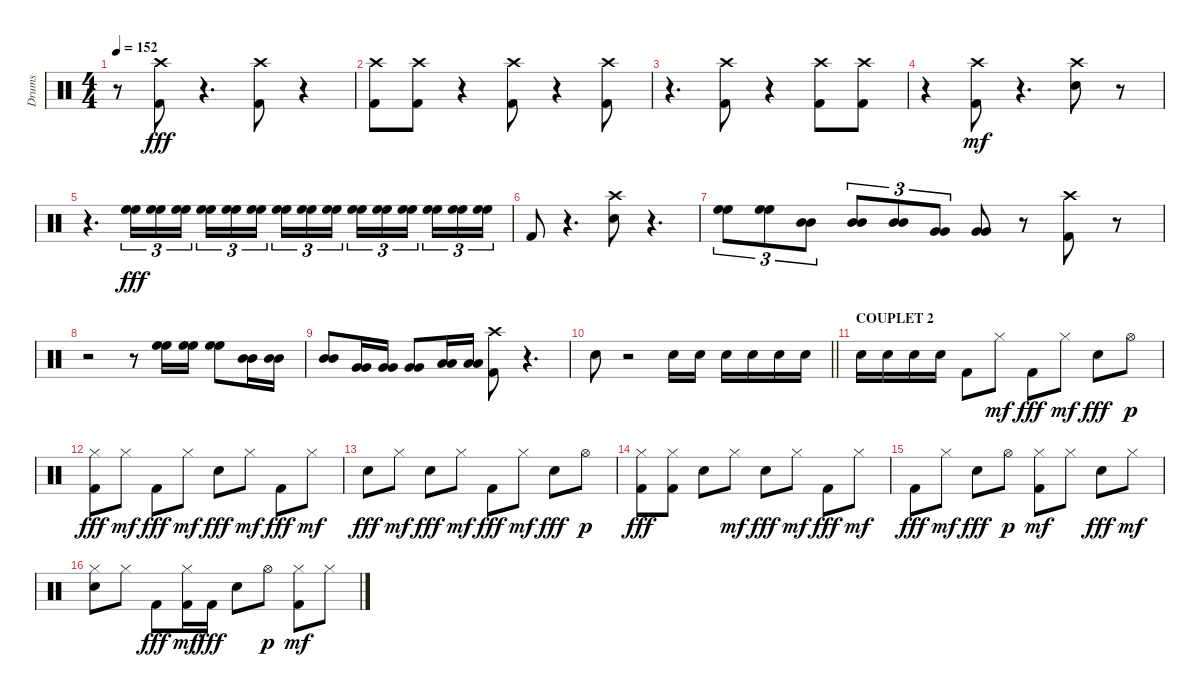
\track ("Drums" "Drums") {instrument percussion}
\staff {score}
\articulation defaults
\ts (4 4)
\tempo 152
\clef neutral
\ks c
r.8{dy fff} ("Crash high (hit)" "Kick (hit) 2").8 r.4{d} ("Crash high (hit)" "Kick (hit) 2").8 r.4 |
("Crash high (hit)" "Kick (hit) 2").8 ("Crash high (hit)" "Kick (hit) 2").8 r.4 ("Crash high (hit)" "Kick (hit) 2").8 r.4 ("Crash high (hit)" "Kick (hit) 2").8 |
r.4{d} ("Crash high (hit)" "Kick (hit) 2").8 r.4 ("Crash high (hit)" "Kick (hit) 2").8 ("Crash high (hit)" "Kick (hit) 2").8 |
r.4 ("Kick (hit) 2" "Crash high (hit)").8{dy mf} r.4{d} ("Electric Snare (hit)" "Crash high (hit)").8 r.8 |
r.4{d} ("High Floor Tom (hit)" "High Floor Tom (hit)").16{tu (3 2) dy fff} ("High Floor Tom (hit)" "High Floor Tom (hit)").16{tu (3 2)} ("High Floor Tom (hit)" "High Floor Tom (hit)").16{tu (3 2)} ("High Floor Tom (hit)" "High Floor Tom (hit)").16{tu (3 2)} ("High Floor Tom (hit)" "High Floor Tom (hit)").16{tu (3 2)} ("High Floor Tom (hit)" "High Floor Tom (hit)").16{tu (3 2) beam splitsecondary} ("High Floor Tom (hit)" "High Floor Tom (hit)").16{tu (3 2)} ("High Floor Tom (hit)" "High Floor Tom (hit)").16{tu (3 2)} ("High Floor Tom (hit)" "High Floor Tom (hit)").16{tu (3 2)} ("High Floor Tom (hit)" "High Floor Tom (hit)").16{tu (3 2)} ("High Floor Tom (hit)" "High Floor Tom (hit)").16{tu (3 2)} ("High Floor Tom (hit)" "High Floor Tom (hit)").16{tu (3 2) beam splitsecondary} ("High Floor Tom (hit)" "High Floor Tom (hit)").16{tu (3 2)} ("High Floor Tom (hit)" "High Floor Tom (hit)").16{tu (3 2)} ("High Floor Tom (hit)" "High Floor Tom (hit)").16{tu (3 2)} |
"Kick (hit) 2".8 r.4{d} ("Crash high (hit)" "Electric Snare (hit)").8 r.4{d} |
("High Floor Tom (hit)" "High Floor Tom (hit)").8{tu (3 2)} ("High Floor Tom (hit)" "High Floor Tom (hit)").8{tu (3 2)} ("Mid Tom (hit)" "Mid Tom (hit)").8{tu (3 2)} ("Mid Tom (hit)" "Mid Tom (hit)").8{tu (3 2)} ("Mid Tom (hit)" "Mid Tom (hit)").8{tu (3 2)} ("Very Low Tom (hit)" "Very Low Tom (hit)").8{tu (3 2)} ("Very Low Tom (hit)" "Very Low Tom (hit)").8 r.8 ("Crash high (hit)" "Kick (hit) 2").8 r.8 |
r.2 r.8 ("High Floor Tom (hit)" "High Floor Tom (hit)").16 ("High Floor Tom (hit)" "High Floor Tom (hit)").16 ("High Floor Tom (hit)" "High Floor Tom (hit)").8 ("Mid Tom (hit)" "Mid Tom (hit)").16 ("Mid Tom (hit)" "Mid Tom (hit)").16 |
("Mid Tom (hit)" "Mid Tom (hit)").8 ("Very Low Tom (hit)" "Very Low Tom (hit)").16 ("Very Low Tom (hit)" "Very Low Tom (hit)").16 ("Very Low Tom (hit)" "Very Low Tom (hit)").8 ("Low Floor Tom (hit)" "Low Floor Tom (hit)").16 ("Low Floor Tom (hit)" "Low Floor Tom (hit)").16 ("Crash high (hit)" "Kick (hit) 2").8 r.4{d} |
\barLineRight lightlight "Electric Snare (hit)".8
r.2 "Electric Snare (hit)".16 "Electric Snare (hit)".16 "Electric Snare (hit)".16 "Electric Snare (hit)".16 "Electric Snare (hit)".16 "Electric Snare (hit)".16 |
\section ("" "COUPLET 2")
"Electric Snare (hit)".16 "Electric Snare (hit)".16 "Electric Snare (hit)".16 "Electric Snare (hit)".16 "Kick (hit) 2".8 "Hi-Hat (closed)".8{dy mf} "Kick (hit) 2".8{dy fff} "Hi-Hat (closed)".8{dy mf} "Electric Snare (hit)".8{dy fff} "Hi-Hat (open)".8{dy p} |
("Hi-Hat (closed)" "Kick (hit) 2").8{dy fff} "Hi-Hat (closed)".8{dy mf} "Kick (hit) 2".8{dy fff} "Hi-Hat (closed)".8{dy mf} "Electric Snare (hit)".8{dy fff} "Hi-Hat (closed)".8{dy mf} "Kick (hit) 2".8{dy fff} "Hi-Hat (closed)".8{dy mf} |
"Electric Snare (hit)".8{dy fff} "Hi-Hat (closed)".8{dy mf} "Electric Snare (hit)".8{dy fff} "Hi-Hat (closed)".8{dy mf} "Kick (hit) 2".8{dy fff} "Hi-Hat (closed)".8{dy mf} "Electric Snare (hit)".8{dy fff} "Hi-Hat (open)".8{dy p} |
("Hi-Hat (closed)" "Kick (hit) 2").8{dy fff} ("Hi-Hat (closed)" "Kick (hit) 2").8 "Electric Snare (hit)".8 "Hi-Hat (closed)".8{dy mf} "Electric Snare (hit)".8{dy fff} "Hi-Hat (closed)".8{dy mf} "Kick (hit) 2".8{dy fff} "Hi-Hat (closed)".8{dy mf} |
"Kick (hit) 2".8{dy fff} "Hi-Hat (closed)".8{dy mf} "Electric Snare (hit)".8{dy fff} "Hi-Hat (open)".8{dy p} ("Kick (hit) 2" "Hi-Hat (closed)").8{dy mf} "Hi-Hat (closed)".8 "Electric Snare (hit)".8{dy fff} "Hi-Hat (closed)".8{dy mf} |
("Electric Snare (hit)" "Hi-Hat (closed)").8 "Hi-Hat (closed)".8 "Kick (hit) 2".8{dy fff} ("Kick (hit) 2" "Hi-Hat (closed)").16{dy mf} "Kick (hit) 2".16{dy fff} "Electric Snare (hit)".8 "Hi-Hat (open)".8{dy p} ("Kick (hit) 2" "Hi-Hat (closed)").8{dy mf} "Hi-Hat (closed)".8
